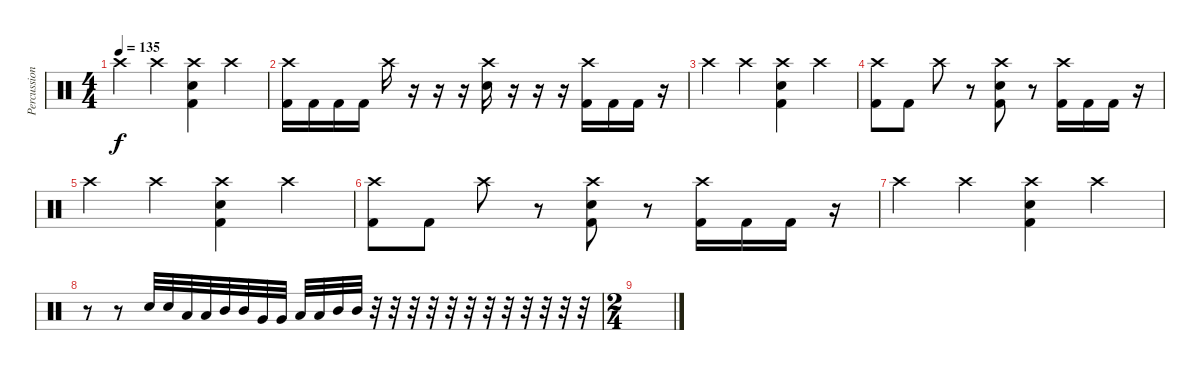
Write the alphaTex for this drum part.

\track ("Percussion" "Percussion") {instrument percussion}
\staff {score}
\articulation defaults
\ts (4 4)
\tempo 135
\clef neutral
\ks c "Crash high (hit)".4{dy f} "Crash high (hit)".4
("Crash high (hit)" "Electric Snare (hit)" "Kick (hit) 2").4 "Crash high (hit)".4 |
("Crash high (hit)" "Kick (hit) 2").16 "Kick (hit) 2".16 "Kick (hit) 2".16 "Kick (hit) 2".16 "Crash high (hit)".16 r.16 r.16 r.16 ("Crash high (hit)" "Electric Snare (hit)").16 r.16 r.16 r.16 ("Crash high (hit)" "Kick (hit) 2").16 "Kick (hit) 2".16 "Kick (hit) 2".16 r.16 |
"Crash high (hit)".4 "Crash high (hit)".4 ("Crash high (hit)" "Electric Snare (hit)" "Kick (hit) 2").4 "Crash high (hit)".4 |
("Crash high (hit)" "Kick (hit) 2").8 "Kick (hit) 2".8 "Crash high (hit)".8 r.8 ("Crash high (hit)" "Electric Snare (hit)" "Kick (hit) 2").8 r.8 ("Crash high (hit)" "Kick (hit) 2").16 "Kick (hit) 2".16 "Kick (hit) 2".16 r.16 |
"Crash high (hit)".4 "Crash high (hit)".4 ("Crash high (hit)" "Electric Snare (hit)" "Kick (hit) 2").4 "Crash high (hit)".4 |
("Crash high (hit)" "Kick (hit) 2").8 "Kick (hit) 2".8 "Crash high (hit)".8 r.8 ("Crash high (hit)" "Electric Snare (hit)" "Kick (hit) 2").8 r.8 ("Crash high (hit)" "Kick (hit) 2").16 "Kick (hit) 2".16 "Kick (hit) 2".16 r.16 |
"Crash high (hit)".4 "Crash high (hit)".4 ("Crash high (hit)" "Electric Snare (hit)" "Kick (hit) 2").4 "Crash high (hit)".4 |
r.8 r.8 "Electric Snare (hit)".32 "Electric Snare (hit)".32 "Low Tom (hit)".32 "Low Tom (hit)".32 "Mid Tom (hit)".32 "Mid Tom (hit)".32 "Very Low Tom (hit)".32 "Very Low Tom (hit)".32 "Low Tom (hit)".32 "Low Tom (hit)".32 "Mid Tom (hit)".32 "Mid Tom (hit)".32 r.32 r.32 r.32 r.32 r.32 r.32 r.32 r.32 r.32 r.32 r.32 r.32 |
\ts (2 4)
